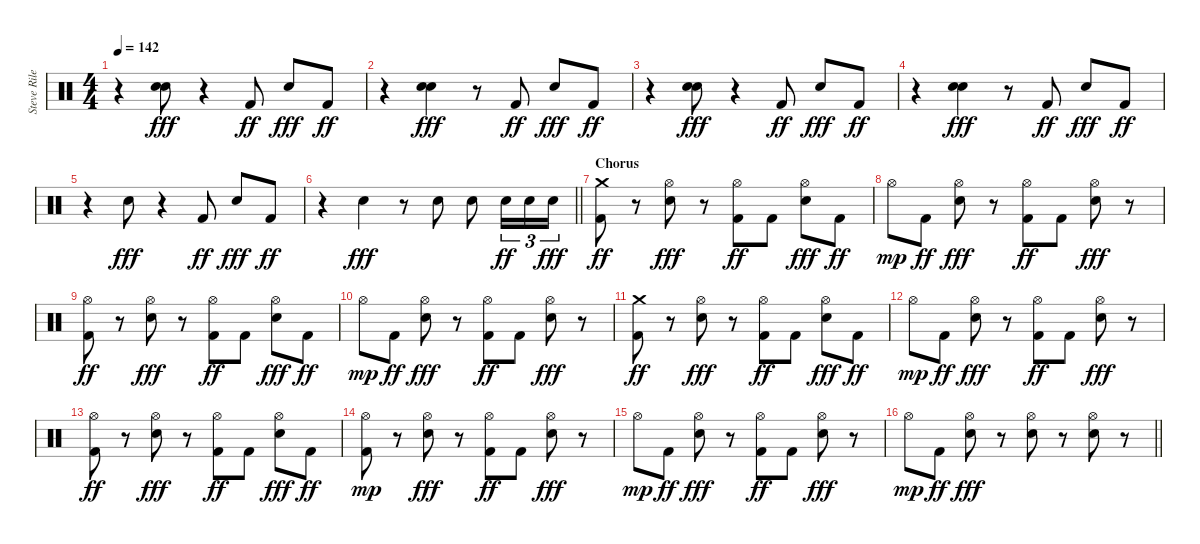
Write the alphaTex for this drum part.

\track ("Steve Riley" "Steve Rile") {instrument percussion}
\staff {score}
\articulation defaults
\ts (4 4)
\tempo 142
\clef neutral
\ks c
r.4{dy ff} ("Electric Snare (hit)" "Electric Snare (hit)").8{bd 60 dy fff} r.4 "Kick (hit) 2".8{dy ff} "Electric Snare (hit)".8{dy fff} "Kick (hit) 2".8{dy ff} |
r.4 ("Electric Snare (hit)" "Electric Snare (hit)").4{bd 60 dy fff} r.8 "Kick (hit) 2".8{dy ff} "Electric Snare (hit)".8{dy fff} "Kick (hit) 2".8{dy ff} |
r.4 ("Electric Snare (hit)" "Electric Snare (hit)").8{bd 60 dy fff} r.4 "Kick (hit) 2".8{dy ff} "Electric Snare (hit)".8{dy fff} "Kick (hit) 2".8{dy ff} |
r.4 ("Electric Snare (hit)" "Electric Snare (hit)").4{bd 60 dy fff} r.8 "Kick (hit) 2".8{dy ff} "Electric Snare (hit)".8{dy fff} "Kick (hit) 2".8{dy ff} |
r.4 "Electric Snare (hit)".8{dy fff} r.4 "Kick (hit) 2".8{dy ff} "Electric Snare (hit)".8{dy fff} "Kick (hit) 2".8{dy ff} |
\barLineRight lightlight
r.4 "Electric Snare (hit)".4{dy fff} r.8 "Electric Snare (hit)".8 "Electric Snare (hit)".8 "Electric Snare (hit)".16{tu (3 2) dy ff} "Electric Snare (hit)".16{tu (3 2)} "Electric Snare (hit)".16{tu (3 2) dy fff} |
\section ("" "Chorus")
("Crash medium (hit)" "Kick (hit) 2").8{dy ff} r.8 ("Hi-Hat (open)" "Electric Snare (hit)").8{dy fff} r.8 ("Hi-Hat (open)" "Kick (hit) 2").8{dy ff} "Kick (hit) 2".8 ("Hi-Hat (open)" "Electric Snare (hit)").8{dy fff} "Kick (hit) 2".8{dy ff} |
"Hi-Hat (open)".8{dy mp} "Kick (hit) 2".8{dy ff} ("Hi-Hat (open)" "Electric Snare (hit)").8{dy fff} r.8 ("Hi-Hat (open)" "Kick (hit) 2").8{dy ff} "Kick (hit) 2".8 ("Hi-Hat (open)" "Electric Snare (hit)").8{dy fff} r.8 |
("Hi-Hat (open)" "Kick (hit) 2").8{dy ff} r.8 ("Hi-Hat (open)" "Electric Snare (hit)").8{dy fff} r.8 ("Hi-Hat (open)" "Kick (hit) 2").8{dy ff} "Kick (hit) 2".8 ("Hi-Hat (open)" "Electric Snare (hit)").8{dy fff} "Kick (hit) 2".8{dy ff} |
"Hi-Hat (open)".8{dy mp} "Kick (hit) 2".8{dy ff} ("Hi-Hat (open)" "Electric Snare (hit)").8{dy fff} r.8 ("Hi-Hat (open)" "Kick (hit) 2").8{dy ff} "Kick (hit) 2".8 ("Hi-Hat (open)" "Electric Snare (hit)").8{dy fff} r.8 |
("Crash medium (hit)" "Kick (hit) 2").8{dy ff} r.8 ("Hi-Hat (open)" "Electric Snare (hit)").8{dy fff} r.8 ("Hi-Hat (open)" "Kick (hit) 2").8{dy ff} "Kick (hit) 2".8 ("Hi-Hat (open)" "Electric Snare (hit)").8{dy fff} "Kick (hit) 2".8{dy ff} |
"Hi-Hat (open)".8{dy mp} "Kick (hit) 2".8{dy ff} ("Hi-Hat (open)" "Electric Snare (hit)").8{dy fff} r.8 ("Hi-Hat (open)" "Kick (hit) 2").8{dy ff} "Kick (hit) 2".8 ("Hi-Hat (open)" "Electric Snare (hit)").8{dy fff} r.8 |
("Hi-Hat (open)" "Kick (hit) 2").8{dy ff} r.8 ("Hi-Hat (open)" "Electric Snare (hit)").8{dy fff} r.8 ("Hi-Hat (open)" "Kick (hit) 2").8{dy ff} "Kick (hit) 2".8 ("Hi-Hat (open)" "Electric Snare (hit)").8{dy fff} "Kick (hit) 2".8{dy ff} |
("Hi-Hat (open)" "Kick (hit) 2").8{dy mp} r.8 ("Hi-Hat (open)" "Electric Snare (hit)").8{dy fff} r.8 ("Hi-Hat (open)" "Kick (hit) 2").8{dy ff} "Kick (hit) 2".8 ("Hi-Hat (open)" "Electric Snare (hit)").8{dy fff} r.8 |
"Hi-Hat (open)".8{dy mp} "Kick (hit) 2".8{dy ff} ("Hi-Hat (open)" "Electric Snare (hit)").8{dy fff} r.8 ("Hi-Hat (open)" "Kick (hit) 2").8{dy ff} "Kick (hit) 2".8 ("Hi-Hat (open)" "Electric Snare (hit)").8{dy fff} r.8 |
\barLineRight lightlight "Hi-Hat (open)".8{dy mp} "Kick (hit) 2".8{dy ff}
("Hi-Hat (open)" "Electric Snare (hit)").8{dy fff} r.8 ("Hi-Hat (open)" "Electric Snare (hit)").8 r.8 ("Hi-Hat (open)" "Electric Snare (hit)").8 r.8
